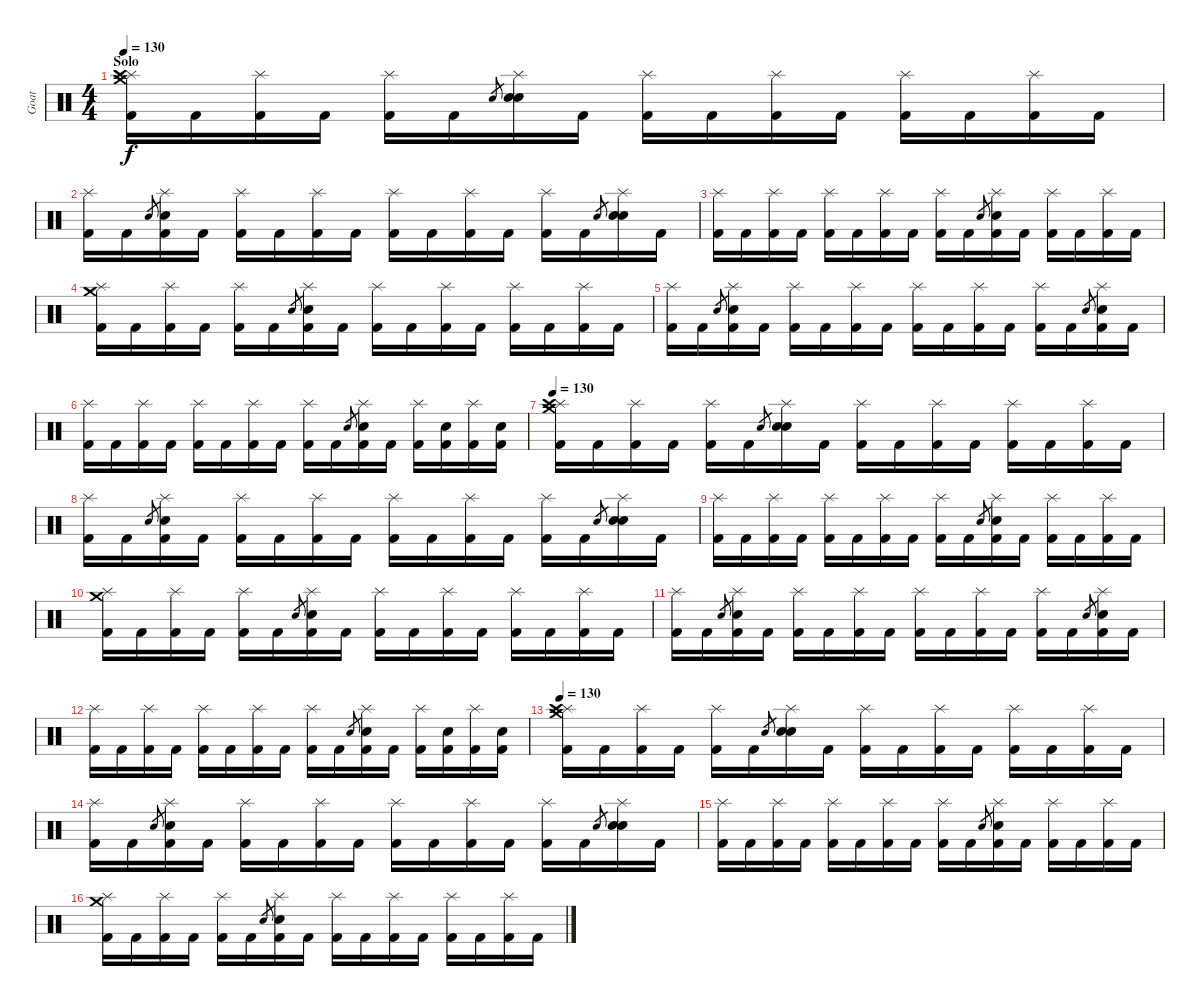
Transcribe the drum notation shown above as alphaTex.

\track ("Goat" "Goat") {instrument percussion}
\staff {score}
\articulation defaults
\ts (4 4)
\section ("" "Solo")
\tempo 130
\clef neutral
\ks c
("Splash (hit)" "Crash high (hit)" "Crash medium (hit)" "Kick (hit) 2").16{dy f} "Kick (hit) 2".16 ("Splash (hit)" "Kick (hit) 2").16 "Kick (hit) 2".16 ("Splash (hit)" "Kick (hit) 2").16 "Kick (hit) 2".16 "Snare (hit) 2".8{gr} ("Splash (hit)" "Snare (hit) 2" "Snare (hit) 2").16 "Kick (hit) 2".16 ("Splash (hit)" "Kick (hit) 2").16 "Kick (hit) 2".16 ("Splash (hit)" "Kick (hit) 2").16 "Kick (hit) 2".16 ("Splash (hit)" "Kick (hit) 2").16 "Kick (hit) 2".16 ("Splash (hit)" "Kick (hit) 2").16 "Kick (hit) 2".16 |
("Splash (hit)" "Kick (hit) 2").16 "Kick (hit) 2".16 "Snare (hit) 2".8{gr} ("Splash (hit)" "Snare (hit) 2" "Kick (hit) 2").16 "Kick (hit) 2".16 ("Splash (hit)" "Kick (hit) 2").16 "Kick (hit) 2".16 ("Splash (hit)" "Kick (hit) 2").16 "Kick (hit) 2".16 ("Splash (hit)" "Kick (hit) 2").16 "Kick (hit) 2".16 ("Splash (hit)" "Kick (hit) 2").16 "Kick (hit) 2".16 ("Splash (hit)" "Kick (hit) 2").16 "Kick (hit) 2".16 "Snare (hit) 2".8{gr} ("Splash (hit)" "Snare (hit) 2" "Snare (hit) 2").16 "Kick (hit) 2".16 |
("Splash (hit)" "Kick (hit) 2").16 "Kick (hit) 2".16 ("Splash (hit)" "Kick (hit) 2").16 "Kick (hit) 2".16 ("Splash (hit)" "Kick (hit) 2").16 "Kick (hit) 2".16 ("Splash (hit)" "Kick (hit) 2").16 "Kick (hit) 2".16 ("Splash (hit)" "Kick (hit) 2").16 "Kick (hit) 2".16 "Snare (hit) 2".8{gr} ("Splash (hit)" "Snare (hit) 2" "Kick (hit) 2").16 "Kick (hit) 2".16 ("Splash (hit)" "Kick (hit) 2").16 "Kick (hit) 2".16 ("Splash (hit)" "Kick (hit) 2").16 "Kick (hit) 2".16 |
("Splash (hit)" "Crash medium (hit)" "Kick (hit) 2").16 "Kick (hit) 2".16 ("Splash (hit)" "Kick (hit) 2").16 "Kick (hit) 2".16 ("Splash (hit)" "Kick (hit) 2").16 "Kick (hit) 2".16 "Snare (hit) 2".8{gr} ("Splash (hit)" "Snare (hit) 2" "Kick (hit) 2").16 "Kick (hit) 2".16 ("Splash (hit)" "Kick (hit) 2").16 "Kick (hit) 2".16 ("Splash (hit)" "Kick (hit) 2").16 "Kick (hit) 2".16 ("Splash (hit)" "Kick (hit) 2").16 "Kick (hit) 2".16 ("Splash (hit)" "Kick (hit) 2").16 "Kick (hit) 2".16 |
("Splash (hit)" "Kick (hit) 2").16 "Kick (hit) 2".16 "Snare (hit) 2".8{gr} ("Splash (hit)" "Snare (hit) 2" "Kick (hit) 2").16 "Kick (hit) 2".16 ("Splash (hit)" "Kick (hit) 2").16 "Kick (hit) 2".16 ("Splash (hit)" "Kick (hit) 2").16 "Kick (hit) 2".16 ("Splash (hit)" "Kick (hit) 2").16 "Kick (hit) 2".16 ("Splash (hit)" "Kick (hit) 2").16 "Kick (hit) 2".16 ("Splash (hit)" "Kick (hit) 2").16 "Kick (hit) 2".16 "Snare (hit) 2".8{gr} ("Splash (hit)" "Snare (hit) 2" "Kick (hit) 2").16 "Kick (hit) 2".16 |
("Splash (hit)" "Kick (hit) 2").16 "Kick (hit) 2".16 ("Splash (hit)" "Kick (hit) 2").16 "Kick (hit) 2".16 ("Splash (hit)" "Kick (hit) 2").16 "Kick (hit) 2".16 ("Splash (hit)" "Kick (hit) 2").16 "Kick (hit) 2".16 ("Splash (hit)" "Kick (hit) 2").16 "Kick (hit) 2".16 "Snare (hit) 2".8{gr} ("Splash (hit)" "Snare (hit) 2" "Kick (hit) 2").16 "Kick (hit) 2".16 ("Splash (hit)" "Kick (hit) 2").16 ("Snare (hit) 2" "Kick (hit) 2").16 ("Splash (hit)" "Kick (hit) 2").16 ("Snare (hit) 2" "Kick (hit) 2").16 |
\tempo 130
("Splash (hit)" "Crash high (hit)" "Crash medium (hit)" "Kick (hit) 2").16 "Kick (hit) 2".16 ("Splash (hit)" "Kick (hit) 2").16 "Kick (hit) 2".16 ("Splash (hit)" "Kick (hit) 2").16 "Kick (hit) 2".16 "Snare (hit) 2".8{gr} ("Splash (hit)" "Snare (hit) 2" "Snare (hit) 2").16 "Kick (hit) 2".16 ("Splash (hit)" "Kick (hit) 2").16 "Kick (hit) 2".16 ("Splash (hit)" "Kick (hit) 2").16 "Kick (hit) 2".16 ("Splash (hit)" "Kick (hit) 2").16 "Kick (hit) 2".16 ("Splash (hit)" "Kick (hit) 2").16 "Kick (hit) 2".16 |
("Splash (hit)" "Kick (hit) 2").16 "Kick (hit) 2".16 "Snare (hit) 2".8{gr} ("Splash (hit)" "Snare (hit) 2" "Kick (hit) 2").16 "Kick (hit) 2".16 ("Splash (hit)" "Kick (hit) 2").16 "Kick (hit) 2".16 ("Splash (hit)" "Kick (hit) 2").16 "Kick (hit) 2".16 ("Splash (hit)" "Kick (hit) 2").16 "Kick (hit) 2".16 ("Splash (hit)" "Kick (hit) 2").16 "Kick (hit) 2".16 ("Splash (hit)" "Kick (hit) 2").16 "Kick (hit) 2".16 "Snare (hit) 2".8{gr} ("Splash (hit)" "Snare (hit) 2" "Snare (hit) 2").16 "Kick (hit) 2".16 |
("Splash (hit)" "Kick (hit) 2").16 "Kick (hit) 2".16 ("Splash (hit)" "Kick (hit) 2").16 "Kick (hit) 2".16 ("Splash (hit)" "Kick (hit) 2").16 "Kick (hit) 2".16 ("Splash (hit)" "Kick (hit) 2").16 "Kick (hit) 2".16 ("Splash (hit)" "Kick (hit) 2").16 "Kick (hit) 2".16 "Snare (hit) 2".8{gr} ("Splash (hit)" "Snare (hit) 2" "Kick (hit) 2").16 "Kick (hit) 2".16 ("Splash (hit)" "Kick (hit) 2").16 "Kick (hit) 2".16 ("Splash (hit)" "Kick (hit) 2").16 "Kick (hit) 2".16 |
("Splash (hit)" "Crash medium (hit)" "Kick (hit) 2").16 "Kick (hit) 2".16 ("Splash (hit)" "Kick (hit) 2").16 "Kick (hit) 2".16 ("Splash (hit)" "Kick (hit) 2").16 "Kick (hit) 2".16 "Snare (hit) 2".8{gr} ("Splash (hit)" "Snare (hit) 2" "Kick (hit) 2").16 "Kick (hit) 2".16 ("Splash (hit)" "Kick (hit) 2").16 "Kick (hit) 2".16 ("Splash (hit)" "Kick (hit) 2").16 "Kick (hit) 2".16 ("Splash (hit)" "Kick (hit) 2").16 "Kick (hit) 2".16 ("Splash (hit)" "Kick (hit) 2").16 "Kick (hit) 2".16 |
("Splash (hit)" "Kick (hit) 2").16 "Kick (hit) 2".16 "Snare (hit) 2".8{gr} ("Splash (hit)" "Snare (hit) 2" "Kick (hit) 2").16 "Kick (hit) 2".16 ("Splash (hit)" "Kick (hit) 2").16 "Kick (hit) 2".16 ("Splash (hit)" "Kick (hit) 2").16 "Kick (hit) 2".16 ("Splash (hit)" "Kick (hit) 2").16 "Kick (hit) 2".16 ("Splash (hit)" "Kick (hit) 2").16 "Kick (hit) 2".16 ("Splash (hit)" "Kick (hit) 2").16 "Kick (hit) 2".16 "Snare (hit) 2".8{gr} ("Splash (hit)" "Snare (hit) 2" "Kick (hit) 2").16 "Kick (hit) 2".16 |
("Splash (hit)" "Kick (hit) 2").16 "Kick (hit) 2".16 ("Splash (hit)" "Kick (hit) 2").16 "Kick (hit) 2".16 ("Splash (hit)" "Kick (hit) 2").16 "Kick (hit) 2".16 ("Splash (hit)" "Kick (hit) 2").16 "Kick (hit) 2".16 ("Splash (hit)" "Kick (hit) 2").16 "Kick (hit) 2".16 "Snare (hit) 2".8{gr} ("Splash (hit)" "Snare (hit) 2" "Kick (hit) 2").16 "Kick (hit) 2".16 ("Splash (hit)" "Kick (hit) 2").16 ("Snare (hit) 2" "Kick (hit) 2").16 ("Splash (hit)" "Kick (hit) 2").16 ("Snare (hit) 2" "Kick (hit) 2").16 |
\tempo 130
("Splash (hit)" "Crash high (hit)" "Crash medium (hit)" "Kick (hit) 2").16 "Kick (hit) 2".16 ("Splash (hit)" "Kick (hit) 2").16 "Kick (hit) 2".16 ("Splash (hit)" "Kick (hit) 2").16 "Kick (hit) 2".16 "Snare (hit) 2".8{gr} ("Splash (hit)" "Snare (hit) 2" "Snare (hit) 2").16 "Kick (hit) 2".16 ("Splash (hit)" "Kick (hit) 2").16 "Kick (hit) 2".16 ("Splash (hit)" "Kick (hit) 2").16 "Kick (hit) 2".16 ("Splash (hit)" "Kick (hit) 2").16 "Kick (hit) 2".16 ("Splash (hit)" "Kick (hit) 2").16 "Kick (hit) 2".16 |
("Splash (hit)" "Kick (hit) 2").16 "Kick (hit) 2".16 "Snare (hit) 2".8{gr} ("Splash (hit)" "Snare (hit) 2" "Kick (hit) 2").16 "Kick (hit) 2".16 ("Splash (hit)" "Kick (hit) 2").16 "Kick (hit) 2".16 ("Splash (hit)" "Kick (hit) 2").16 "Kick (hit) 2".16 ("Splash (hit)" "Kick (hit) 2").16 "Kick (hit) 2".16 ("Splash (hit)" "Kick (hit) 2").16 "Kick (hit) 2".16 ("Splash (hit)" "Kick (hit) 2").16 "Kick (hit) 2".16 "Snare (hit) 2".8{gr} ("Splash (hit)" "Snare (hit) 2" "Snare (hit) 2").16 "Kick (hit) 2".16 |
("Splash (hit)" "Kick (hit) 2").16 "Kick (hit) 2".16 ("Splash (hit)" "Kick (hit) 2").16 "Kick (hit) 2".16 ("Splash (hit)" "Kick (hit) 2").16 "Kick (hit) 2".16 ("Splash (hit)" "Kick (hit) 2").16 "Kick (hit) 2".16 ("Splash (hit)" "Kick (hit) 2").16 "Kick (hit) 2".16 "Snare (hit) 2".8{gr} ("Splash (hit)" "Snare (hit) 2" "Kick (hit) 2").16 "Kick (hit) 2".16 ("Splash (hit)" "Kick (hit) 2").16 "Kick (hit) 2".16 ("Splash (hit)" "Kick (hit) 2").16 "Kick (hit) 2".16 |
("Splash (hit)" "Crash medium (hit)" "Kick (hit) 2").16 "Kick (hit) 2".16 ("Splash (hit)" "Kick (hit) 2").16 "Kick (hit) 2".16 ("Splash (hit)" "Kick (hit) 2").16 "Kick (hit) 2".16 "Snare (hit) 2".8{gr} ("Splash (hit)" "Snare (hit) 2" "Kick (hit) 2").16 "Kick (hit) 2".16 ("Splash (hit)" "Kick (hit) 2").16 "Kick (hit) 2".16 ("Splash (hit)" "Kick (hit) 2").16 "Kick (hit) 2".16 ("Splash (hit)" "Kick (hit) 2").16 "Kick (hit) 2".16 ("Splash (hit)" "Kick (hit) 2").16 "Kick (hit) 2".16
